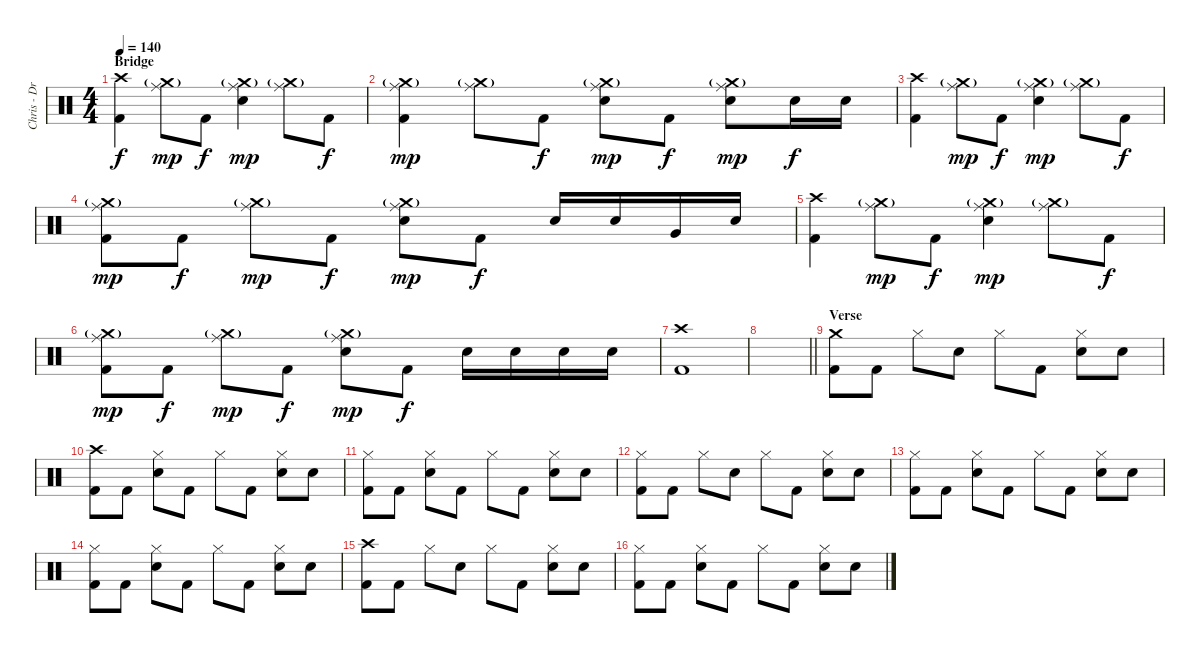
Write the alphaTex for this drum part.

\track ("Chris - Drums" "Chris - Dr") {instrument percussion}
\staff {score}
\articulation defaults
\ts (4 4)
\section ("" "Bridge")
\tempo 140
\clef neutral
\ks c
("Crash high (hit)" "Kick (hit) 2").4{dy f} ("Crash medium (hit)"{g} "Ride (middle)").8{dy mp} "Kick (hit) 2".8{dy f} ("Crash medium (hit)"{g} "Ride (middle)" "Electric Snare (hit)").4{dy mp} ("Crash medium (hit)"{g} "Ride (middle)").8 "Kick (hit) 2".8{dy f} |
("Crash medium (hit)"{g} "Ride (middle)" "Kick (hit) 2").4{dy mp} ("Crash medium (hit)"{g} "Ride (middle)").8 "Kick (hit) 2".8{dy f} ("Crash medium (hit)"{g} "Ride (middle)" "Electric Snare (hit)").8{dy mp} "Kick (hit) 2".8{dy f} ("Crash medium (hit)"{g} "Ride (middle)" "Electric Snare (hit)").8{dy mp} "Electric Snare (hit)".16{dy f} "Electric Snare (hit)".16 |
("Crash high (hit)" "Kick (hit) 2").4 ("Crash medium (hit)"{g} "Ride (middle)").8{dy mp} "Kick (hit) 2".8{dy f} ("Crash medium (hit)"{g} "Ride (middle)" "Electric Snare (hit)").4{dy mp} ("Crash medium (hit)"{g} "Ride (middle)").8 "Kick (hit) 2".8{dy f} |
("Crash medium (hit)"{g} "Ride (middle)" "Kick (hit) 2").8{dy mp} "Kick (hit) 2".8{dy f} ("Crash medium (hit)"{g} "Ride (middle)").8{dy mp} "Kick (hit) 2".8{dy f} ("Crash medium (hit)"{g} "Ride (middle)" "Electric Snare (hit)").8{dy mp} "Kick (hit) 2".8{dy f} "Electric Snare (hit)".16 "Electric Snare (hit)".16 "Very Low Tom (hit)".16 "Electric Snare (hit)".16 |
("Crash high (hit)" "Kick (hit) 2").4 ("Crash medium (hit)"{g} "Ride (middle)").8{dy mp} "Kick (hit) 2".8{dy f} ("Crash medium (hit)"{g} "Ride (middle)" "Electric Snare (hit)").4{dy mp} ("Crash medium (hit)"{g} "Ride (middle)").8 "Kick (hit) 2".8{dy f} |
("Crash medium (hit)"{g} "Ride (middle)" "Kick (hit) 2").8{dy mp} "Kick (hit) 2".8{dy f} ("Crash medium (hit)"{g} "Ride (middle)").8{dy mp} "Kick (hit) 2".8{dy f} ("Crash medium (hit)"{g} "Ride (middle)" "Electric Snare (hit)").8{dy mp} "Kick (hit) 2".8{dy f} "Electric Snare (hit)".16 "Electric Snare (hit)".16 "Electric Snare (hit)".16 "Electric Snare (hit)".16 |
("Crash high (hit)" "Kick (hit) 2").1 |
\barLineRight lightlight
|
\section ("" "Verse")
("Crash medium (hit)" "Kick (hit) 2").8 "Kick (hit) 2".8 "Hi-Hat (closed)".8 "Electric Snare (hit)".8 "Hi-Hat (closed)".8 "Kick (hit) 2".8 ("Hi-Hat (closed)" "Electric Snare (hit)").8 "Electric Snare (hit)".8 |
("Crash high (hit)" "Kick (hit) 2").8 "Kick (hit) 2".8 ("Hi-Hat (closed)" "Electric Snare (hit)").8 "Kick (hit) 2".8 "Hi-Hat (closed)".8 "Kick (hit) 2".8 ("Hi-Hat (closed)" "Electric Snare (hit)").8 "Electric Snare (hit)".8 |
("Hi-Hat (closed)" "Kick (hit) 2").8 "Kick (hit) 2".8 ("Hi-Hat (closed)" "Electric Snare (hit)").8 "Kick (hit) 2".8 "Hi-Hat (closed)".8 "Kick (hit) 2".8 ("Hi-Hat (closed)" "Electric Snare (hit)").8 "Electric Snare (hit)".8 |
("Hi-Hat (closed)" "Kick (hit) 2").8 "Kick (hit) 2".8 "Hi-Hat (closed)".8 "Electric Snare (hit)".8 "Hi-Hat (closed)".8 "Kick (hit) 2".8 ("Hi-Hat (closed)" "Electric Snare (hit)").8 "Electric Snare (hit)".8 |
("Hi-Hat (closed)" "Kick (hit) 2").8 "Kick (hit) 2".8 ("Hi-Hat (closed)" "Electric Snare (hit)").8 "Kick (hit) 2".8 "Hi-Hat (closed)".8 "Kick (hit) 2".8 ("Hi-Hat (closed)" "Electric Snare (hit)").8 "Electric Snare (hit)".8 |
("Hi-Hat (closed)" "Kick (hit) 2").8 "Kick (hit) 2".8 ("Hi-Hat (closed)" "Electric Snare (hit)").8 "Kick (hit) 2".8 "Hi-Hat (closed)".8 "Kick (hit) 2".8 ("Hi-Hat (closed)" "Electric Snare (hit)").8 "Electric Snare (hit)".8 |
("Crash high (hit)" "Kick (hit) 2").8 "Kick (hit) 2".8 "Hi-Hat (closed)".8 "Electric Snare (hit)".8 "Hi-Hat (closed)".8 "Kick (hit) 2".8 ("Hi-Hat (closed)" "Electric Snare (hit)").8 "Electric Snare (hit)".8 |
("Hi-Hat (closed)" "Kick (hit) 2").8 "Kick (hit) 2".8 ("Hi-Hat (closed)" "Electric Snare (hit)").8 "Kick (hit) 2".8 "Hi-Hat (closed)".8 "Kick (hit) 2".8 ("Hi-Hat (closed)" "Electric Snare (hit)").8 "Electric Snare (hit)".8
